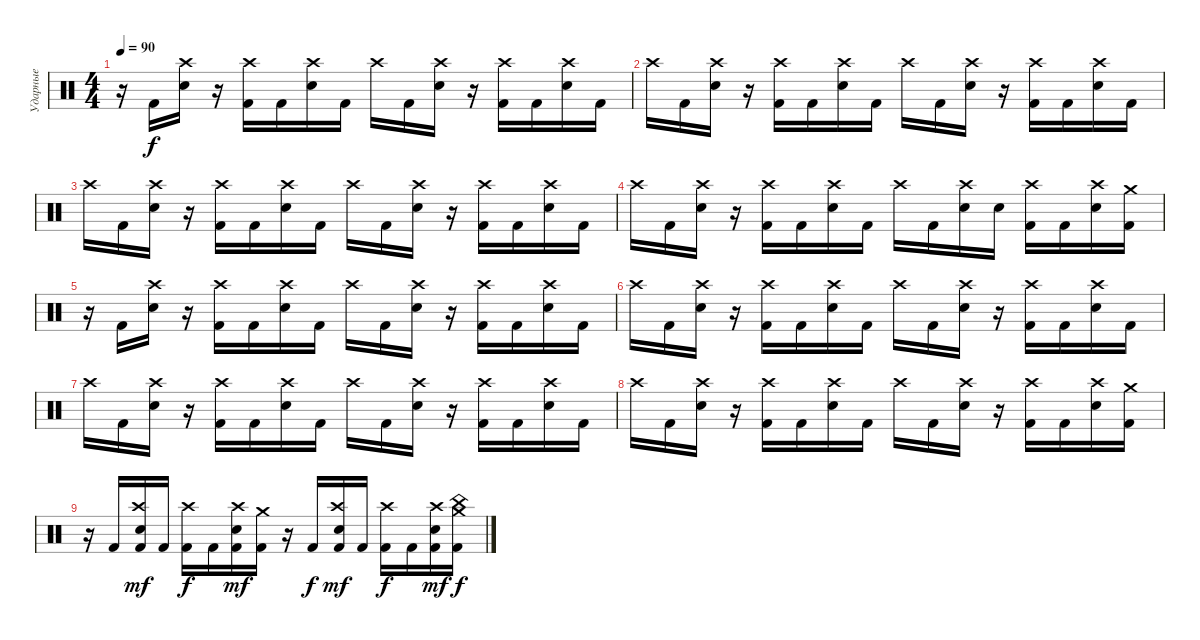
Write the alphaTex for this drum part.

\track ("Ударные" "Ударные") {instrument percussion}
\staff {score}
\articulation defaults
\ts (4 4)
\tempo 90
\clef neutral
\ks c
r.16{dy f} "Kick (hit) 2".16 ("Crash high (hit)" "Electric Snare (hit)").16 r.16 ("Crash high (hit)" "Kick (hit) 2").16 "Kick (hit) 2".16 ("Crash high (hit)" "Electric Snare (hit)").16 "Kick (hit) 2".16 "Crash high (hit)".16 "Kick (hit) 2".16 ("Crash high (hit)" "Electric Snare (hit)").16 r.16 ("Crash high (hit)" "Kick (hit) 2").16 "Kick (hit) 2".16 ("Crash high (hit)" "Electric Snare (hit)").16 "Kick (hit) 2".16 |
"Crash high (hit)".16 "Kick (hit) 2".16 ("Crash high (hit)" "Electric Snare (hit)").16 r.16 ("Crash high (hit)" "Kick (hit) 2").16 "Kick (hit) 2".16 ("Crash high (hit)" "Electric Snare (hit)").16 "Kick (hit) 2".16 "Crash high (hit)".16 "Kick (hit) 2".16 ("Crash high (hit)" "Electric Snare (hit)").16 r.16 ("Crash high (hit)" "Kick (hit) 2").16 "Kick (hit) 2".16 ("Crash high (hit)" "Electric Snare (hit)").16 "Kick (hit) 2".16 |
"Crash high (hit)".16 "Kick (hit) 2".16 ("Crash high (hit)" "Electric Snare (hit)").16 r.16 ("Crash high (hit)" "Kick (hit) 2").16 "Kick (hit) 2".16 ("Crash high (hit)" "Electric Snare (hit)").16 "Kick (hit) 2".16 "Crash high (hit)".16 "Kick (hit) 2".16 ("Crash high (hit)" "Electric Snare (hit)").16 r.16 ("Crash high (hit)" "Kick (hit) 2").16 "Kick (hit) 2".16 ("Crash high (hit)" "Electric Snare (hit)").16 "Kick (hit) 2".16 |
"Crash high (hit)".16 "Kick (hit) 2".16 ("Crash high (hit)" "Electric Snare (hit)").16 r.16 ("Crash high (hit)" "Kick (hit) 2").16 "Kick (hit) 2".16 ("Crash high (hit)" "Electric Snare (hit)").16 "Kick (hit) 2".16 "Crash high (hit)".16 "Kick (hit) 2".16 ("Crash high (hit)" "Electric Snare (hit)").16 "Electric Snare (hit)".16 ("Crash high (hit)" "Kick (hit) 2").16 "Kick (hit) 2".16 ("Crash high (hit)" "Electric Snare (hit)").16 ("Crash medium (hit)" "Kick (hit) 2").16 |
r.16 "Kick (hit) 2".16 ("Crash high (hit)" "Electric Snare (hit)").16 r.16 ("Crash high (hit)" "Kick (hit) 2").16 "Kick (hit) 2".16 ("Crash high (hit)" "Electric Snare (hit)").16 "Kick (hit) 2".16 "Crash high (hit)".16 "Kick (hit) 2".16 ("Crash high (hit)" "Electric Snare (hit)").16 r.16 ("Crash high (hit)" "Kick (hit) 2").16 "Kick (hit) 2".16 ("Crash high (hit)" "Electric Snare (hit)").16 "Kick (hit) 2".16 |
"Crash high (hit)".16 "Kick (hit) 2".16 ("Crash high (hit)" "Electric Snare (hit)").16 r.16 ("Crash high (hit)" "Kick (hit) 2").16 "Kick (hit) 2".16 ("Crash high (hit)" "Electric Snare (hit)").16 "Kick (hit) 2".16 "Crash high (hit)".16 "Kick (hit) 2".16 ("Crash high (hit)" "Electric Snare (hit)").16 r.16 ("Crash high (hit)" "Kick (hit) 2").16 "Kick (hit) 2".16 ("Crash high (hit)" "Electric Snare (hit)").16 "Kick (hit) 2".16 |
"Crash high (hit)".16 "Kick (hit) 2".16 ("Crash high (hit)" "Electric Snare (hit)").16 r.16 ("Crash high (hit)" "Kick (hit) 2").16 "Kick (hit) 2".16 ("Crash high (hit)" "Electric Snare (hit)").16 "Kick (hit) 2".16 "Crash high (hit)".16 "Kick (hit) 2".16 ("Crash high (hit)" "Electric Snare (hit)").16 r.16 ("Crash high (hit)" "Kick (hit) 2").16 "Kick (hit) 2".16 ("Crash high (hit)" "Electric Snare (hit)").16 "Kick (hit) 2".16 |
"Crash high (hit)".16 "Kick (hit) 2".16 ("Crash high (hit)" "Electric Snare (hit)").16 r.16 ("Crash high (hit)" "Kick (hit) 2").16 "Kick (hit) 2".16 ("Crash high (hit)" "Electric Snare (hit)").16 "Kick (hit) 2".16 "Crash high (hit)".16 "Kick (hit) 2".16 ("Crash high (hit)" "Electric Snare (hit)").16 r.16 ("Crash high (hit)" "Kick (hit) 2").16 "Kick (hit) 2".16 ("Crash high (hit)" "Electric Snare (hit)").16 ("Crash medium (hit)" "Kick (hit) 2").16 |
r.16 "Kick (hit) 2".16 ("Crash high (hit)" "Electric Snare (hit)" "Kick (hit) 2").16{dy mf} "Kick (hit) 2".16 ("Crash high (hit)" "Kick (hit) 2").16{dy f} "Kick (hit) 2".16 ("Crash high (hit)" "Electric Snare (hit)" "Kick (hit) 2").16{dy mf} ("Crash medium (hit)" "Kick (hit) 2").16 r.16 "Kick (hit) 2".16{dy f} ("Crash high (hit)" "Electric Snare (hit)" "Kick (hit) 2").16{dy mf} "Kick (hit) 2".16 ("Crash high (hit)" "Kick (hit) 2").16{dy f} "Kick (hit) 2".16 ("Crash high (hit)" "Electric Snare (hit)" "Kick (hit) 2").16{dy mf} ("China (hit)" "Crash medium (hit)" "Kick (hit) 2").16{dy f}
